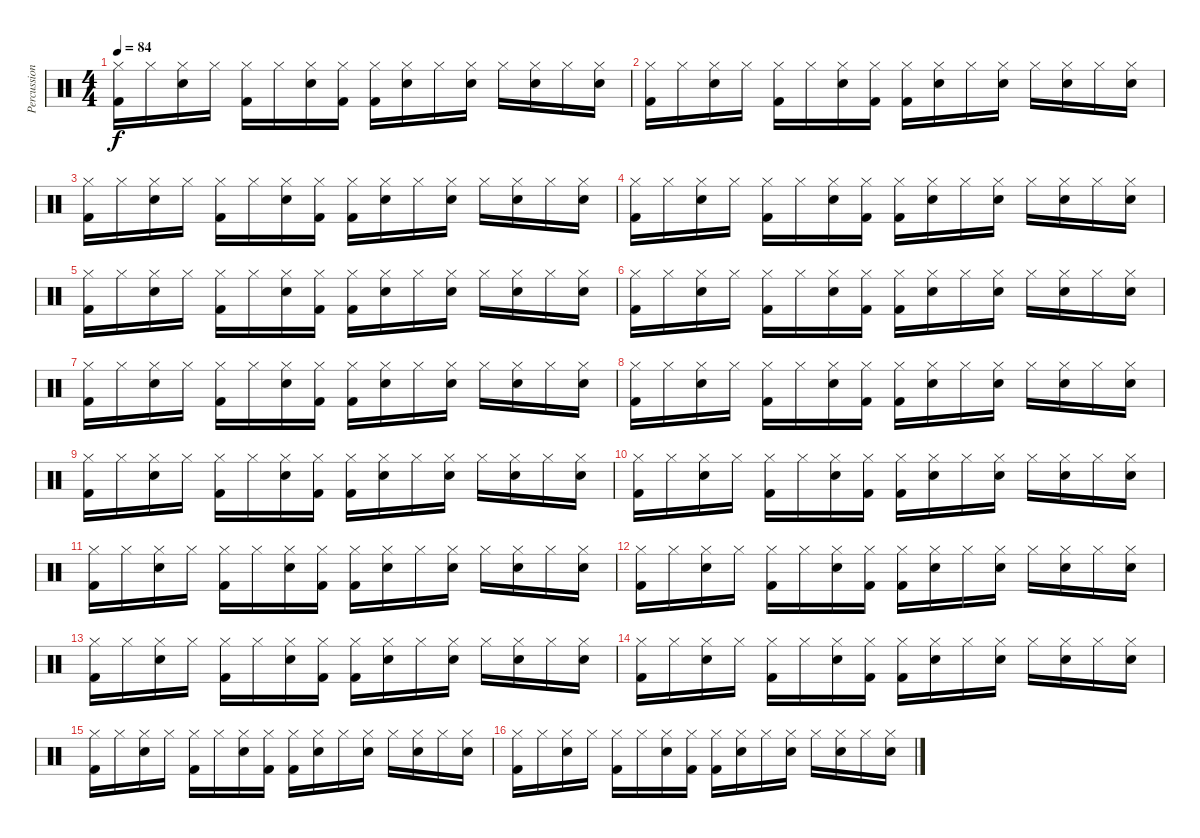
\track ("Percussion" "Percussion") {instrument percussion}
\staff {score}
\articulation defaults
\ts (4 4)
\tempo 84
\clef neutral
\ks c
("Hi-Hat (closed)" "Kick (hit) 2").16{dy f} "Hi-Hat (closed)".16 ("Hi-Hat (closed)" "Snare (hit) 2").16 "Hi-Hat (closed)".16 ("Hi-Hat (closed)" "Kick (hit) 2").16 "Hi-Hat (closed)".16 ("Hi-Hat (closed)" "Snare (hit) 2").16 ("Hi-Hat (closed)" "Kick (hit) 2").16 ("Hi-Hat (closed)" "Kick (hit) 2").16 ("Hi-Hat (closed)" "Snare (hit) 2").16 "Hi-Hat (closed)".16 ("Hi-Hat (closed)" "Snare (hit) 2").16 "Hi-Hat (closed)".16 ("Hi-Hat (closed)" "Snare (hit) 2").16 "Hi-Hat (closed)".16 ("Hi-Hat (closed)" "Snare (hit) 2").16 |
("Hi-Hat (closed)" "Kick (hit) 2").16 "Hi-Hat (closed)".16 ("Hi-Hat (closed)" "Snare (hit) 2").16 "Hi-Hat (closed)".16 ("Hi-Hat (closed)" "Kick (hit) 2").16 "Hi-Hat (closed)".16 ("Hi-Hat (closed)" "Snare (hit) 2").16 ("Hi-Hat (closed)" "Kick (hit) 2").16 ("Hi-Hat (closed)" "Kick (hit) 2").16 ("Hi-Hat (closed)" "Snare (hit) 2").16 "Hi-Hat (closed)".16 ("Hi-Hat (closed)" "Snare (hit) 2").16 "Hi-Hat (closed)".16 ("Hi-Hat (closed)" "Snare (hit) 2").16 "Hi-Hat (closed)".16 ("Hi-Hat (closed)" "Snare (hit) 2").16 |
("Hi-Hat (closed)" "Kick (hit) 2").16 "Hi-Hat (closed)".16 ("Hi-Hat (closed)" "Snare (hit) 2").16 "Hi-Hat (closed)".16 ("Hi-Hat (closed)" "Kick (hit) 2").16 "Hi-Hat (closed)".16 ("Hi-Hat (closed)" "Snare (hit) 2").16 ("Hi-Hat (closed)" "Kick (hit) 2").16 ("Hi-Hat (closed)" "Kick (hit) 2").16 ("Hi-Hat (closed)" "Snare (hit) 2").16 "Hi-Hat (closed)".16 ("Hi-Hat (closed)" "Snare (hit) 2").16 "Hi-Hat (closed)".16 ("Hi-Hat (closed)" "Snare (hit) 2").16 "Hi-Hat (closed)".16 ("Hi-Hat (closed)" "Snare (hit) 2").16 |
("Hi-Hat (closed)" "Kick (hit) 2").16 "Hi-Hat (closed)".16 ("Hi-Hat (closed)" "Snare (hit) 2").16 "Hi-Hat (closed)".16 ("Hi-Hat (closed)" "Kick (hit) 2").16 "Hi-Hat (closed)".16 ("Hi-Hat (closed)" "Snare (hit) 2").16 ("Hi-Hat (closed)" "Kick (hit) 2").16 ("Hi-Hat (closed)" "Kick (hit) 2").16 ("Hi-Hat (closed)" "Snare (hit) 2").16 "Hi-Hat (closed)".16 ("Hi-Hat (closed)" "Snare (hit) 2").16 "Hi-Hat (closed)".16 ("Hi-Hat (closed)" "Snare (hit) 2").16 "Hi-Hat (closed)".16 ("Hi-Hat (closed)" "Snare (hit) 2").16 |
("Hi-Hat (closed)" "Kick (hit) 2").16 "Hi-Hat (closed)".16 ("Hi-Hat (closed)" "Snare (hit) 2").16 "Hi-Hat (closed)".16 ("Hi-Hat (closed)" "Kick (hit) 2").16 "Hi-Hat (closed)".16 ("Hi-Hat (closed)" "Snare (hit) 2").16 ("Hi-Hat (closed)" "Kick (hit) 2").16 ("Hi-Hat (closed)" "Kick (hit) 2").16 ("Hi-Hat (closed)" "Snare (hit) 2").16 "Hi-Hat (closed)".16 ("Hi-Hat (closed)" "Snare (hit) 2").16 "Hi-Hat (closed)".16 ("Hi-Hat (closed)" "Snare (hit) 2").16 "Hi-Hat (closed)".16 ("Hi-Hat (closed)" "Snare (hit) 2").16 |
("Hi-Hat (closed)" "Kick (hit) 2").16 "Hi-Hat (closed)".16 ("Hi-Hat (closed)" "Snare (hit) 2").16 "Hi-Hat (closed)".16 ("Hi-Hat (closed)" "Kick (hit) 2").16 "Hi-Hat (closed)".16 ("Hi-Hat (closed)" "Snare (hit) 2").16 ("Hi-Hat (closed)" "Kick (hit) 2").16 ("Hi-Hat (closed)" "Kick (hit) 2").16 ("Hi-Hat (closed)" "Snare (hit) 2").16 "Hi-Hat (closed)".16 ("Hi-Hat (closed)" "Snare (hit) 2").16 "Hi-Hat (closed)".16 ("Hi-Hat (closed)" "Snare (hit) 2").16 "Hi-Hat (closed)".16 ("Hi-Hat (closed)" "Snare (hit) 2").16 |
("Hi-Hat (closed)" "Kick (hit) 2").16 "Hi-Hat (closed)".16 ("Hi-Hat (closed)" "Snare (hit) 2").16 "Hi-Hat (closed)".16 ("Hi-Hat (closed)" "Kick (hit) 2").16 "Hi-Hat (closed)".16 ("Hi-Hat (closed)" "Snare (hit) 2").16 ("Hi-Hat (closed)" "Kick (hit) 2").16 ("Hi-Hat (closed)" "Kick (hit) 2").16 ("Hi-Hat (closed)" "Snare (hit) 2").16 "Hi-Hat (closed)".16 ("Hi-Hat (closed)" "Snare (hit) 2").16 "Hi-Hat (closed)".16 ("Hi-Hat (closed)" "Snare (hit) 2").16 "Hi-Hat (closed)".16 ("Hi-Hat (closed)" "Snare (hit) 2").16 |
("Hi-Hat (closed)" "Kick (hit) 2").16 "Hi-Hat (closed)".16 ("Hi-Hat (closed)" "Snare (hit) 2").16 "Hi-Hat (closed)".16 ("Hi-Hat (closed)" "Kick (hit) 2").16 "Hi-Hat (closed)".16 ("Hi-Hat (closed)" "Snare (hit) 2").16 ("Hi-Hat (closed)" "Kick (hit) 2").16 ("Hi-Hat (closed)" "Kick (hit) 2").16 ("Hi-Hat (closed)" "Snare (hit) 2").16 "Hi-Hat (closed)".16 ("Hi-Hat (closed)" "Snare (hit) 2").16 "Hi-Hat (closed)".16 ("Hi-Hat (closed)" "Snare (hit) 2").16 "Hi-Hat (closed)".16 ("Hi-Hat (closed)" "Snare (hit) 2").16 |
("Hi-Hat (closed)" "Kick (hit) 2").16 "Hi-Hat (closed)".16 ("Hi-Hat (closed)" "Snare (hit) 2").16 "Hi-Hat (closed)".16 ("Hi-Hat (closed)" "Kick (hit) 2").16 "Hi-Hat (closed)".16 ("Hi-Hat (closed)" "Snare (hit) 2").16 ("Hi-Hat (closed)" "Kick (hit) 2").16 ("Hi-Hat (closed)" "Kick (hit) 2").16 ("Hi-Hat (closed)" "Snare (hit) 2").16 "Hi-Hat (closed)".16 ("Hi-Hat (closed)" "Snare (hit) 2").16 "Hi-Hat (closed)".16 ("Hi-Hat (closed)" "Snare (hit) 2").16 "Hi-Hat (closed)".16 ("Hi-Hat (closed)" "Snare (hit) 2").16 |
("Hi-Hat (closed)" "Kick (hit) 2").16 "Hi-Hat (closed)".16 ("Hi-Hat (closed)" "Snare (hit) 2").16 "Hi-Hat (closed)".16 ("Hi-Hat (closed)" "Kick (hit) 2").16 "Hi-Hat (closed)".16 ("Hi-Hat (closed)" "Snare (hit) 2").16 ("Hi-Hat (closed)" "Kick (hit) 2").16 ("Hi-Hat (closed)" "Kick (hit) 2").16 ("Hi-Hat (closed)" "Snare (hit) 2").16 "Hi-Hat (closed)".16 ("Hi-Hat (closed)" "Snare (hit) 2").16 "Hi-Hat (closed)".16 ("Hi-Hat (closed)" "Snare (hit) 2").16 "Hi-Hat (closed)".16 ("Hi-Hat (closed)" "Snare (hit) 2").16 |
("Hi-Hat (closed)" "Kick (hit) 2").16 "Hi-Hat (closed)".16 ("Hi-Hat (closed)" "Snare (hit) 2").16 "Hi-Hat (closed)".16 ("Hi-Hat (closed)" "Kick (hit) 2").16 "Hi-Hat (closed)".16 ("Hi-Hat (closed)" "Snare (hit) 2").16 ("Hi-Hat (closed)" "Kick (hit) 2").16 ("Hi-Hat (closed)" "Kick (hit) 2").16 ("Hi-Hat (closed)" "Snare (hit) 2").16 "Hi-Hat (closed)".16 ("Hi-Hat (closed)" "Snare (hit) 2").16 "Hi-Hat (closed)".16 ("Hi-Hat (closed)" "Snare (hit) 2").16 "Hi-Hat (closed)".16 ("Hi-Hat (closed)" "Snare (hit) 2").16 |
("Hi-Hat (closed)" "Kick (hit) 2").16 "Hi-Hat (closed)".16 ("Hi-Hat (closed)" "Snare (hit) 2").16 "Hi-Hat (closed)".16 ("Hi-Hat (closed)" "Kick (hit) 2").16 "Hi-Hat (closed)".16 ("Hi-Hat (closed)" "Snare (hit) 2").16 ("Hi-Hat (closed)" "Kick (hit) 2").16 ("Hi-Hat (closed)" "Kick (hit) 2").16 ("Hi-Hat (closed)" "Snare (hit) 2").16 "Hi-Hat (closed)".16 ("Hi-Hat (closed)" "Snare (hit) 2").16 "Hi-Hat (closed)".16 ("Hi-Hat (closed)" "Snare (hit) 2").16 "Hi-Hat (closed)".16 ("Hi-Hat (closed)" "Snare (hit) 2").16 |
("Hi-Hat (closed)" "Kick (hit) 2").16 "Hi-Hat (closed)".16 ("Hi-Hat (closed)" "Snare (hit) 2").16 "Hi-Hat (closed)".16 ("Hi-Hat (closed)" "Kick (hit) 2").16 "Hi-Hat (closed)".16 ("Hi-Hat (closed)" "Snare (hit) 2").16 ("Hi-Hat (closed)" "Kick (hit) 2").16 ("Hi-Hat (closed)" "Kick (hit) 2").16 ("Hi-Hat (closed)" "Snare (hit) 2").16 "Hi-Hat (closed)".16 ("Hi-Hat (closed)" "Snare (hit) 2").16 "Hi-Hat (closed)".16 ("Hi-Hat (closed)" "Snare (hit) 2").16 "Hi-Hat (closed)".16 ("Hi-Hat (closed)" "Snare (hit) 2").16 |
("Hi-Hat (closed)" "Kick (hit) 2").16 "Hi-Hat (closed)".16 ("Hi-Hat (closed)" "Snare (hit) 2").16 "Hi-Hat (closed)".16 ("Hi-Hat (closed)" "Kick (hit) 2").16 "Hi-Hat (closed)".16 ("Hi-Hat (closed)" "Snare (hit) 2").16 ("Hi-Hat (closed)" "Kick (hit) 2").16 ("Hi-Hat (closed)" "Kick (hit) 2").16 ("Hi-Hat (closed)" "Snare (hit) 2").16 "Hi-Hat (closed)".16 ("Hi-Hat (closed)" "Snare (hit) 2").16 "Hi-Hat (closed)".16 ("Hi-Hat (closed)" "Snare (hit) 2").16 "Hi-Hat (closed)".16 ("Hi-Hat (closed)" "Snare (hit) 2").16 |
("Hi-Hat (closed)" "Kick (hit) 2").16 "Hi-Hat (closed)".16 ("Hi-Hat (closed)" "Snare (hit) 2").16 "Hi-Hat (closed)".16 ("Hi-Hat (closed)" "Kick (hit) 2").16 "Hi-Hat (closed)".16 ("Hi-Hat (closed)" "Snare (hit) 2").16 ("Hi-Hat (closed)" "Kick (hit) 2").16 ("Hi-Hat (closed)" "Kick (hit) 2").16 ("Hi-Hat (closed)" "Snare (hit) 2").16 "Hi-Hat (closed)".16 ("Hi-Hat (closed)" "Snare (hit) 2").16 "Hi-Hat (closed)".16 ("Hi-Hat (closed)" "Snare (hit) 2").16 "Hi-Hat (closed)".16 ("Hi-Hat (closed)" "Snare (hit) 2").16 |
("Hi-Hat (closed)" "Kick (hit) 2").16 "Hi-Hat (closed)".16 ("Hi-Hat (closed)" "Snare (hit) 2").16 "Hi-Hat (closed)".16 ("Hi-Hat (closed)" "Kick (hit) 2").16 "Hi-Hat (closed)".16 ("Hi-Hat (closed)" "Snare (hit) 2").16 ("Hi-Hat (closed)" "Kick (hit) 2").16 ("Hi-Hat (closed)" "Kick (hit) 2").16 ("Hi-Hat (closed)" "Snare (hit) 2").16 "Hi-Hat (closed)".16 ("Hi-Hat (closed)" "Snare (hit) 2").16 "Hi-Hat (closed)".16 ("Hi-Hat (closed)" "Snare (hit) 2").16 "Hi-Hat (closed)".16 ("Hi-Hat (closed)" "Snare (hit) 2").16
